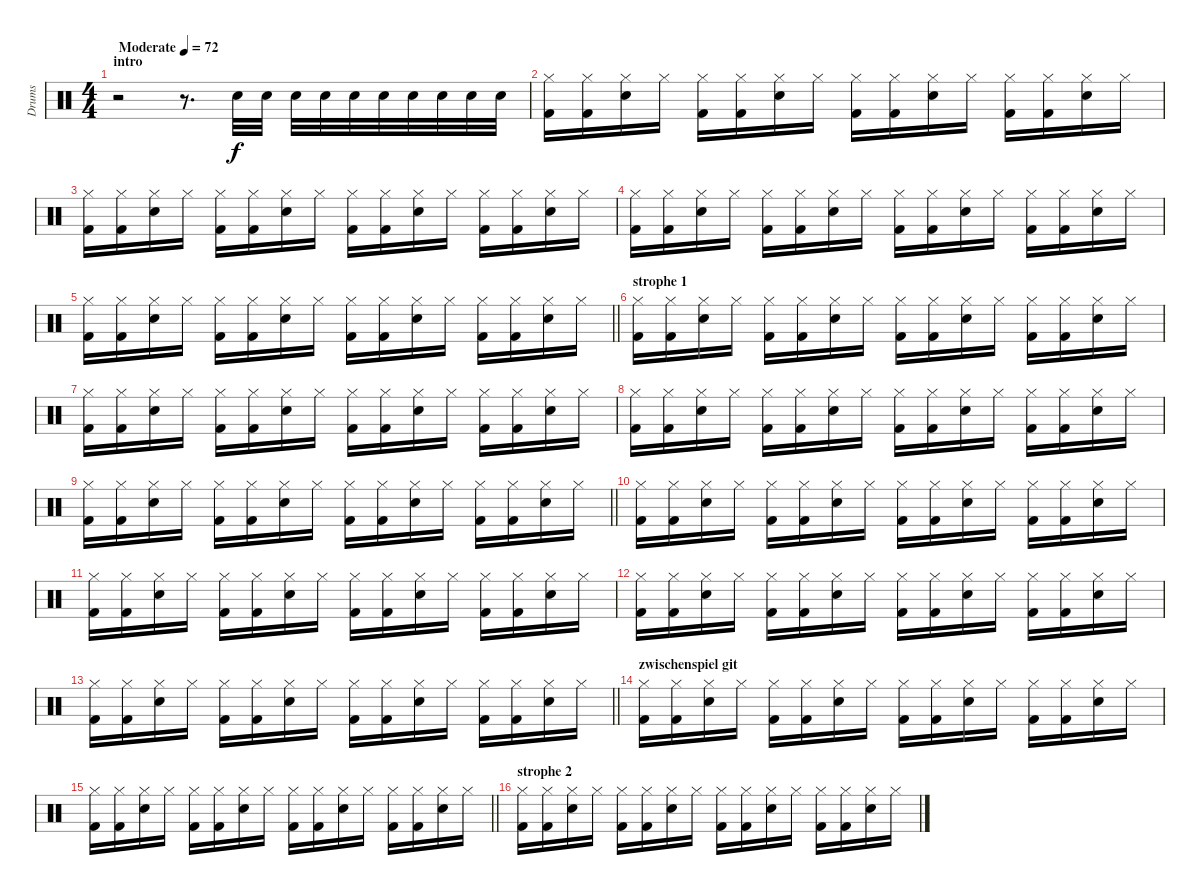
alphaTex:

\track ("Drums" "Drums") {instrument percussion}
\staff {score}
\articulation defaults
\ts (4 4)
\section ("" "intro")
\tempo (72 "Moderate")
\clef neutral
\ks c
r.2{dy f} r.8{d} "Electric Snare (hit)".32 "Electric Snare (hit)".32 "Electric Snare (hit)".32 "Electric Snare (hit)".32 "Electric Snare (hit)".32 "Electric Snare (hit)".32 "Electric Snare (hit)".32 "Electric Snare (hit)".32 "Electric Snare (hit)".32 "Electric Snare (hit)".32 |
("Hi-Hat (closed)" "Kick (hit) 2").16 ("Hi-Hat (closed)" "Kick (hit) 2").16 ("Hi-Hat (closed)" "Snare (hit) 2").16 "Hi-Hat (closed)".16 ("Hi-Hat (closed)" "Kick (hit) 2").16 ("Hi-Hat (closed)" "Kick (hit) 2").16 ("Hi-Hat (closed)" "Snare (hit) 2").16 "Hi-Hat (closed)".16 ("Hi-Hat (closed)" "Kick (hit) 2").16 ("Hi-Hat (closed)" "Kick (hit) 2").16 ("Hi-Hat (closed)" "Snare (hit) 2").16 "Hi-Hat (closed)".16 ("Hi-Hat (closed)" "Kick (hit) 2").16 ("Hi-Hat (closed)" "Kick (hit) 2").16 ("Hi-Hat (closed)" "Snare (hit) 2").16 "Hi-Hat (closed)".16 |
("Hi-Hat (closed)" "Kick (hit) 2").16 ("Hi-Hat (closed)" "Kick (hit) 2").16 ("Hi-Hat (closed)" "Snare (hit) 2").16 "Hi-Hat (closed)".16 ("Hi-Hat (closed)" "Kick (hit) 2").16 ("Hi-Hat (closed)" "Kick (hit) 2").16 ("Hi-Hat (closed)" "Snare (hit) 2").16 "Hi-Hat (closed)".16 ("Hi-Hat (closed)" "Kick (hit) 2").16 ("Hi-Hat (closed)" "Kick (hit) 2").16 ("Hi-Hat (closed)" "Snare (hit) 2").16 "Hi-Hat (closed)".16 ("Hi-Hat (closed)" "Kick (hit) 2").16 ("Hi-Hat (closed)" "Kick (hit) 2").16 ("Hi-Hat (closed)" "Snare (hit) 2").16 "Hi-Hat (closed)".16 |
("Hi-Hat (closed)" "Kick (hit) 2").16 ("Hi-Hat (closed)" "Kick (hit) 2").16 ("Hi-Hat (closed)" "Snare (hit) 2").16 "Hi-Hat (closed)".16 ("Hi-Hat (closed)" "Kick (hit) 2").16 ("Hi-Hat (closed)" "Kick (hit) 2").16 ("Hi-Hat (closed)" "Snare (hit) 2").16 "Hi-Hat (closed)".16 ("Hi-Hat (closed)" "Kick (hit) 2").16 ("Hi-Hat (closed)" "Kick (hit) 2").16 ("Hi-Hat (closed)" "Snare (hit) 2").16 "Hi-Hat (closed)".16 ("Hi-Hat (closed)" "Kick (hit) 2").16 ("Hi-Hat (closed)" "Kick (hit) 2").16 ("Hi-Hat (closed)" "Snare (hit) 2").16 "Hi-Hat (closed)".16 |
\barLineRight lightlight
("Hi-Hat (closed)" "Kick (hit) 2").16 ("Hi-Hat (closed)" "Kick (hit) 2").16 ("Hi-Hat (closed)" "Snare (hit) 2").16 "Hi-Hat (closed)".16 ("Hi-Hat (closed)" "Kick (hit) 2").16 ("Hi-Hat (closed)" "Kick (hit) 2").16 ("Hi-Hat (closed)" "Snare (hit) 2").16 "Hi-Hat (closed)".16 ("Hi-Hat (closed)" "Kick (hit) 2").16 ("Hi-Hat (closed)" "Kick (hit) 2").16 ("Hi-Hat (closed)" "Snare (hit) 2").16 "Hi-Hat (closed)".16 ("Hi-Hat (closed)" "Kick (hit) 2").16 ("Hi-Hat (closed)" "Kick (hit) 2").16 ("Hi-Hat (closed)" "Snare (hit) 2").16 "Hi-Hat (closed)".16 |
\section ("" "strophe 1")
("Hi-Hat (closed)" "Kick (hit) 2").16 ("Hi-Hat (closed)" "Kick (hit) 2").16 ("Hi-Hat (closed)" "Snare (hit) 2").16 "Hi-Hat (closed)".16 ("Hi-Hat (closed)" "Kick (hit) 2").16 ("Hi-Hat (closed)" "Kick (hit) 2").16 ("Hi-Hat (closed)" "Snare (hit) 2").16 "Hi-Hat (closed)".16 ("Hi-Hat (closed)" "Kick (hit) 2").16 ("Hi-Hat (closed)" "Kick (hit) 2").16 ("Hi-Hat (closed)" "Snare (hit) 2").16 "Hi-Hat (closed)".16 ("Hi-Hat (closed)" "Kick (hit) 2").16 ("Hi-Hat (closed)" "Kick (hit) 2").16 ("Hi-Hat (closed)" "Snare (hit) 2").16 "Hi-Hat (closed)".16 |
("Hi-Hat (closed)" "Kick (hit) 2").16 ("Hi-Hat (closed)" "Kick (hit) 2").16 ("Hi-Hat (closed)" "Snare (hit) 2").16 "Hi-Hat (closed)".16 ("Hi-Hat (closed)" "Kick (hit) 2").16 ("Hi-Hat (closed)" "Kick (hit) 2").16 ("Hi-Hat (closed)" "Snare (hit) 2").16 "Hi-Hat (closed)".16 ("Hi-Hat (closed)" "Kick (hit) 2").16 ("Hi-Hat (closed)" "Kick (hit) 2").16 ("Hi-Hat (closed)" "Snare (hit) 2").16 "Hi-Hat (closed)".16 ("Hi-Hat (closed)" "Kick (hit) 2").16 ("Hi-Hat (closed)" "Kick (hit) 2").16 ("Hi-Hat (closed)" "Snare (hit) 2").16 "Hi-Hat (closed)".16 |
("Hi-Hat (closed)" "Kick (hit) 2").16 ("Hi-Hat (closed)" "Kick (hit) 2").16 ("Hi-Hat (closed)" "Snare (hit) 2").16 "Hi-Hat (closed)".16 ("Hi-Hat (closed)" "Kick (hit) 2").16 ("Hi-Hat (closed)" "Kick (hit) 2").16 ("Hi-Hat (closed)" "Snare (hit) 2").16 "Hi-Hat (closed)".16 ("Hi-Hat (closed)" "Kick (hit) 2").16 ("Hi-Hat (closed)" "Kick (hit) 2").16 ("Hi-Hat (closed)" "Snare (hit) 2").16 "Hi-Hat (closed)".16 ("Hi-Hat (closed)" "Kick (hit) 2").16 ("Hi-Hat (closed)" "Kick (hit) 2").16 ("Hi-Hat (closed)" "Snare (hit) 2").16 "Hi-Hat (closed)".16 |
\barLineRight lightlight
("Hi-Hat (closed)" "Kick (hit) 2").16 ("Hi-Hat (closed)" "Kick (hit) 2").16 ("Hi-Hat (closed)" "Snare (hit) 2").16 "Hi-Hat (closed)".16 ("Hi-Hat (closed)" "Kick (hit) 2").16 ("Hi-Hat (closed)" "Kick (hit) 2").16 ("Hi-Hat (closed)" "Snare (hit) 2").16 "Hi-Hat (closed)".16 ("Hi-Hat (closed)" "Kick (hit) 2").16 ("Hi-Hat (closed)" "Kick (hit) 2").16 ("Hi-Hat (closed)" "Snare (hit) 2").16 "Hi-Hat (closed)".16 ("Hi-Hat (closed)" "Kick (hit) 2").16 ("Hi-Hat (closed)" "Kick (hit) 2").16 ("Hi-Hat (closed)" "Snare (hit) 2").16 "Hi-Hat (closed)".16 |
("Hi-Hat (closed)" "Kick (hit) 2").16 ("Hi-Hat (closed)" "Kick (hit) 2").16 ("Hi-Hat (closed)" "Snare (hit) 2").16 "Hi-Hat (closed)".16 ("Hi-Hat (closed)" "Kick (hit) 2").16 ("Hi-Hat (closed)" "Kick (hit) 2").16 ("Hi-Hat (closed)" "Snare (hit) 2").16 "Hi-Hat (closed)".16 ("Hi-Hat (closed)" "Kick (hit) 2").16 ("Hi-Hat (closed)" "Kick (hit) 2").16 ("Hi-Hat (closed)" "Snare (hit) 2").16 "Hi-Hat (closed)".16 ("Hi-Hat (closed)" "Kick (hit) 2").16 ("Hi-Hat (closed)" "Kick (hit) 2").16 ("Hi-Hat (closed)" "Snare (hit) 2").16 "Hi-Hat (closed)".16 |
("Hi-Hat (closed)" "Kick (hit) 2").16 ("Hi-Hat (closed)" "Kick (hit) 2").16 ("Hi-Hat (closed)" "Snare (hit) 2").16 "Hi-Hat (closed)".16 ("Hi-Hat (closed)" "Kick (hit) 2").16 ("Hi-Hat (closed)" "Kick (hit) 2").16 ("Hi-Hat (closed)" "Snare (hit) 2").16 "Hi-Hat (closed)".16 ("Hi-Hat (closed)" "Kick (hit) 2").16 ("Hi-Hat (closed)" "Kick (hit) 2").16 ("Hi-Hat (closed)" "Snare (hit) 2").16 "Hi-Hat (closed)".16 ("Hi-Hat (closed)" "Kick (hit) 2").16 ("Hi-Hat (closed)" "Kick (hit) 2").16 ("Hi-Hat (closed)" "Snare (hit) 2").16 "Hi-Hat (closed)".16 |
("Hi-Hat (closed)" "Kick (hit) 2").16 ("Hi-Hat (closed)" "Kick (hit) 2").16 ("Hi-Hat (closed)" "Snare (hit) 2").16 "Hi-Hat (closed)".16 ("Hi-Hat (closed)" "Kick (hit) 2").16 ("Hi-Hat (closed)" "Kick (hit) 2").16 ("Hi-Hat (closed)" "Snare (hit) 2").16 "Hi-Hat (closed)".16 ("Hi-Hat (closed)" "Kick (hit) 2").16 ("Hi-Hat (closed)" "Kick (hit) 2").16 ("Hi-Hat (closed)" "Snare (hit) 2").16 "Hi-Hat (closed)".16 ("Hi-Hat (closed)" "Kick (hit) 2").16 ("Hi-Hat (closed)" "Kick (hit) 2").16 ("Hi-Hat (closed)" "Snare (hit) 2").16 "Hi-Hat (closed)".16 |
\barLineRight lightlight
("Hi-Hat (closed)" "Kick (hit) 2").16 ("Hi-Hat (closed)" "Kick (hit) 2").16 ("Hi-Hat (closed)" "Snare (hit) 2").16 "Hi-Hat (closed)".16 ("Hi-Hat (closed)" "Kick (hit) 2").16 ("Hi-Hat (closed)" "Kick (hit) 2").16 ("Hi-Hat (closed)" "Snare (hit) 2").16 "Hi-Hat (closed)".16 ("Hi-Hat (closed)" "Kick (hit) 2").16 ("Hi-Hat (closed)" "Kick (hit) 2").16 ("Hi-Hat (closed)" "Snare (hit) 2").16 "Hi-Hat (closed)".16 ("Hi-Hat (closed)" "Kick (hit) 2").16 ("Hi-Hat (closed)" "Kick (hit) 2").16 ("Hi-Hat (closed)" "Snare (hit) 2").16 "Hi-Hat (closed)".16 |
\section ("" "zwischenspiel git")
("Hi-Hat (closed)" "Kick (hit) 2").16 ("Hi-Hat (closed)" "Kick (hit) 2").16 ("Hi-Hat (closed)" "Snare (hit) 2").16 "Hi-Hat (closed)".16 ("Hi-Hat (closed)" "Kick (hit) 2").16 ("Hi-Hat (closed)" "Kick (hit) 2").16 ("Hi-Hat (closed)" "Snare (hit) 2").16 "Hi-Hat (closed)".16 ("Hi-Hat (closed)" "Kick (hit) 2").16 ("Hi-Hat (closed)" "Kick (hit) 2").16 ("Hi-Hat (closed)" "Snare (hit) 2").16 "Hi-Hat (closed)".16 ("Hi-Hat (closed)" "Kick (hit) 2").16 ("Hi-Hat (closed)" "Kick (hit) 2").16 ("Hi-Hat (closed)" "Snare (hit) 2").16 "Hi-Hat (closed)".16 |
\barLineRight lightlight
("Hi-Hat (closed)" "Kick (hit) 2").16 ("Hi-Hat (closed)" "Kick (hit) 2").16 ("Hi-Hat (closed)" "Snare (hit) 2").16 "Hi-Hat (closed)".16 ("Hi-Hat (closed)" "Kick (hit) 2").16 ("Hi-Hat (closed)" "Kick (hit) 2").16 ("Hi-Hat (closed)" "Snare (hit) 2").16 "Hi-Hat (closed)".16 ("Hi-Hat (closed)" "Kick (hit) 2").16 ("Hi-Hat (closed)" "Kick (hit) 2").16 ("Hi-Hat (closed)" "Snare (hit) 2").16 "Hi-Hat (closed)".16 ("Hi-Hat (closed)" "Kick (hit) 2").16 ("Hi-Hat (closed)" "Kick (hit) 2").16 ("Hi-Hat (closed)" "Snare (hit) 2").16 "Hi-Hat (closed)".16 |
\section ("" "strophe 2")
("Hi-Hat (closed)" "Kick (hit) 2").16 ("Hi-Hat (closed)" "Kick (hit) 2").16 ("Hi-Hat (closed)" "Snare (hit) 2").16 "Hi-Hat (closed)".16 ("Hi-Hat (closed)" "Kick (hit) 2").16 ("Hi-Hat (closed)" "Kick (hit) 2").16 ("Hi-Hat (closed)" "Snare (hit) 2").16 "Hi-Hat (closed)".16 ("Hi-Hat (closed)" "Kick (hit) 2").16 ("Hi-Hat (closed)" "Kick (hit) 2").16 ("Hi-Hat (closed)" "Snare (hit) 2").16 "Hi-Hat (closed)".16 ("Hi-Hat (closed)" "Kick (hit) 2").16 ("Hi-Hat (closed)" "Kick (hit) 2").16 ("Hi-Hat (closed)" "Snare (hit) 2").16 "Hi-Hat (closed)".16
